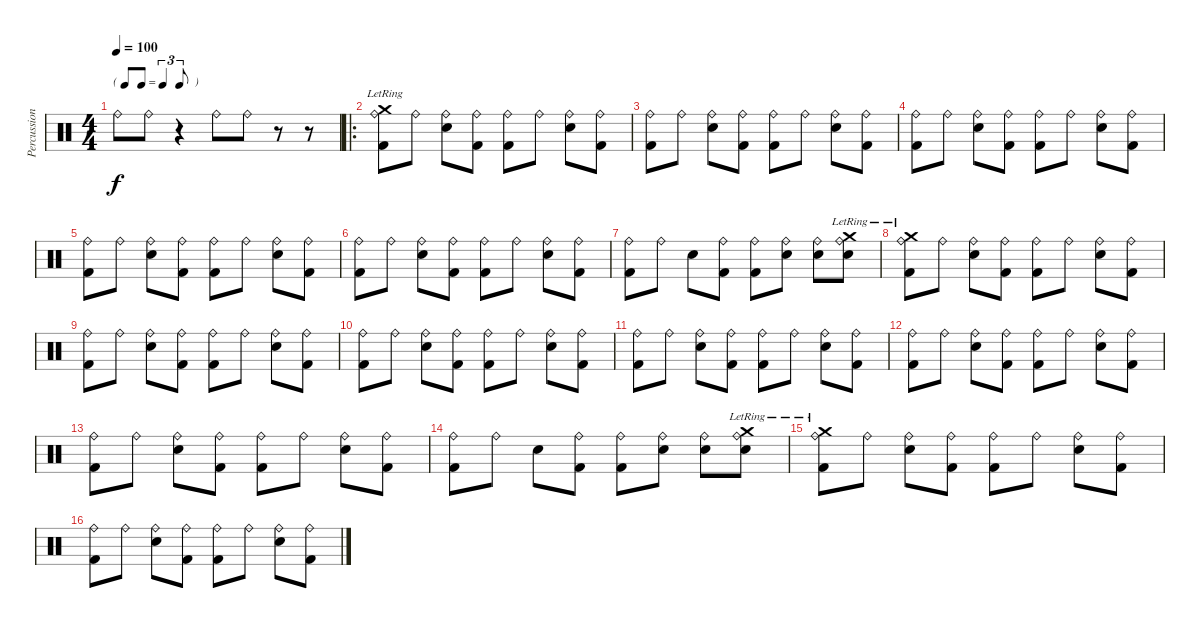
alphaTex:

\track ("Percussions" "Percussion") {instrument percussion}
\staff {score}
\articulation defaults
\ts (4 4)
\tf triplet8th
\tempo 100
\clef neutral
\ks c "Ride (bell)".8{dy f} "Ride (bell)".8
r.4 "Ride (bell)".8 "Ride (bell)".8 r.8 r.8 |
\ro
("Ride (bell)" "Kick (hit) 2" "Crash medium (hit)"{lr}).8 "Ride (bell)".8 ("Ride (bell)" "Electric Snare (hit)").8 ("Ride (bell)" "Kick (hit) 2").8 ("Ride (bell)" "Kick (hit) 2").8 "Ride (bell)".8 ("Ride (bell)" "Electric Snare (hit)").8 ("Ride (bell)" "Kick (hit) 2").8 |
("Ride (bell)" "Kick (hit) 2").8 "Ride (bell)".8 ("Ride (bell)" "Electric Snare (hit)").8 ("Ride (bell)" "Kick (hit) 2").8 ("Ride (bell)" "Kick (hit) 2").8 "Ride (bell)".8 ("Ride (bell)" "Electric Snare (hit)").8 ("Ride (bell)" "Kick (hit) 2").8 |
("Ride (bell)" "Kick (hit) 2").8 "Ride (bell)".8 ("Ride (bell)" "Electric Snare (hit)").8 ("Ride (bell)" "Kick (hit) 2").8 ("Ride (bell)" "Kick (hit) 2").8 "Ride (bell)".8 ("Ride (bell)" "Electric Snare (hit)").8 ("Ride (bell)" "Kick (hit) 2").8 |
("Ride (bell)" "Kick (hit) 2").8 "Ride (bell)".8 ("Ride (bell)" "Electric Snare (hit)").8 ("Ride (bell)" "Kick (hit) 2").8 ("Ride (bell)" "Kick (hit) 2").8 "Ride (bell)".8 ("Ride (bell)" "Electric Snare (hit)").8 ("Ride (bell)" "Kick (hit) 2").8 |
("Ride (bell)" "Kick (hit) 2").8 "Ride (bell)".8 ("Ride (bell)" "Electric Snare (hit)").8 ("Ride (bell)" "Kick (hit) 2").8 ("Ride (bell)" "Kick (hit) 2").8 "Ride (bell)".8 ("Ride (bell)" "Electric Snare (hit)").8 ("Ride (bell)" "Kick (hit) 2").8 |
("Ride (bell)" "Kick (hit) 2").8 "Ride (bell)".8 "Electric Snare (hit)".8 ("Ride (bell)" "Kick (hit) 2").8 ("Ride (bell)" "Kick (hit) 2").8 ("Electric Snare (hit)" "Ride (bell)").8 ("Electric Snare (hit)" "Ride (bell)").8 ("Electric Snare (hit)" "Ride (bell)" "Crash medium (hit)"{lr}).8 |
("Ride (bell)" "Kick (hit) 2" "Crash medium (hit)"{lr}).8 "Ride (bell)".8 ("Ride (bell)" "Electric Snare (hit)").8 ("Ride (bell)" "Kick (hit) 2").8 ("Ride (bell)" "Kick (hit) 2").8 "Ride (bell)".8 ("Ride (bell)" "Electric Snare (hit)").8 ("Ride (bell)" "Kick (hit) 2").8 |
("Ride (bell)" "Kick (hit) 2").8 "Ride (bell)".8 ("Ride (bell)" "Electric Snare (hit)").8 ("Ride (bell)" "Kick (hit) 2").8 ("Ride (bell)" "Kick (hit) 2").8 "Ride (bell)".8 ("Ride (bell)" "Electric Snare (hit)").8 ("Ride (bell)" "Kick (hit) 2").8 |
("Ride (bell)" "Kick (hit) 2").8 "Ride (bell)".8 ("Ride (bell)" "Electric Snare (hit)").8 ("Ride (bell)" "Kick (hit) 2").8 ("Ride (bell)" "Kick (hit) 2").8 "Ride (bell)".8 ("Ride (bell)" "Electric Snare (hit)").8 ("Ride (bell)" "Kick (hit) 2").8 |
("Ride (bell)" "Kick (hit) 2").8 "Ride (bell)".8 ("Ride (bell)" "Electric Snare (hit)").8 ("Ride (bell)" "Kick (hit) 2").8 ("Ride (bell)" "Kick (hit) 2").8 "Ride (bell)".8 ("Ride (bell)" "Electric Snare (hit)").8 ("Ride (bell)" "Kick (hit) 2").8 |
("Ride (bell)" "Kick (hit) 2").8 "Ride (bell)".8 ("Ride (bell)" "Electric Snare (hit)").8 ("Ride (bell)" "Kick (hit) 2").8 ("Ride (bell)" "Kick (hit) 2").8 "Ride (bell)".8 ("Ride (bell)" "Electric Snare (hit)").8 ("Ride (bell)" "Kick (hit) 2").8 |
("Ride (bell)" "Kick (hit) 2").8 "Ride (bell)".8 ("Ride (bell)" "Electric Snare (hit)").8 ("Ride (bell)" "Kick (hit) 2").8 ("Ride (bell)" "Kick (hit) 2").8 "Ride (bell)".8 ("Ride (bell)" "Electric Snare (hit)").8 ("Ride (bell)" "Kick (hit) 2").8 |
("Ride (bell)" "Kick (hit) 2").8 "Ride (bell)".8 "Electric Snare (hit)".8 ("Ride (bell)" "Kick (hit) 2").8 ("Ride (bell)" "Kick (hit) 2").8 ("Electric Snare (hit)" "Ride (bell)").8 ("Electric Snare (hit)" "Ride (bell)").8 ("Electric Snare (hit)" "Ride (bell)" "Crash medium (hit)"{lr}).8 |
("Ride (bell)" "Kick (hit) 2" "Crash medium (hit)"{lr}).8 "Ride (bell)".8 ("Ride (bell)" "Electric Snare (hit)").8 ("Ride (bell)" "Kick (hit) 2").8 ("Ride (bell)" "Kick (hit) 2").8 "Ride (bell)".8 ("Ride (bell)" "Electric Snare (hit)").8 ("Ride (bell)" "Kick (hit) 2").8 |
("Ride (bell)" "Kick (hit) 2").8 "Ride (bell)".8 ("Ride (bell)" "Electric Snare (hit)").8 ("Ride (bell)" "Kick (hit) 2").8 ("Ride (bell)" "Kick (hit) 2").8 "Ride (bell)".8 ("Ride (bell)" "Electric Snare (hit)").8 ("Ride (bell)" "Kick (hit) 2").8
